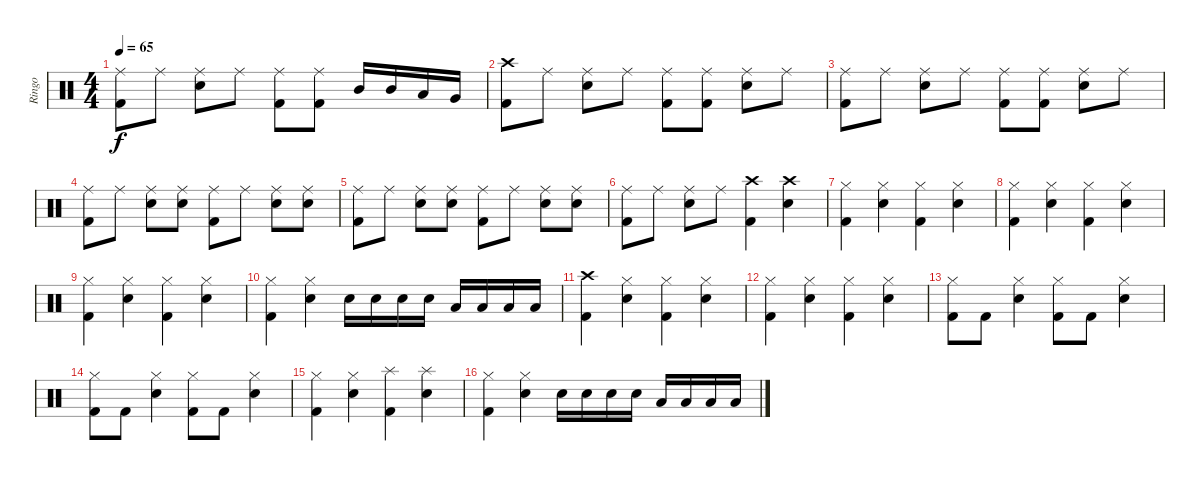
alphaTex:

\track ("Ringo" "Ringo") {instrument percussion}
\staff {score}
\articulation defaults
\ts (4 4)
\tempo 65
\clef neutral
\ks c
("Ride (middle)" "Kick (hit) 2").8{dy f} "Ride (middle)".8 ("Ride (middle)" "Snare (hit) 2").8 "Ride (middle)".8 ("Ride (middle)" "Kick (hit) 2").8 ("Ride (middle)" "Kick (hit) 2").8 "Mid Tom (hit)".16 "Mid Tom (hit)".16 "Low Tom (hit)".16 "Very Low Tom (hit)".16 |
("Crash high (hit)" "Kick (hit) 2").8 "Ride (middle)".8 ("Ride (middle)" "Snare (hit) 2").8 "Ride (middle)".8 ("Ride (middle)" "Kick (hit) 2").8 ("Ride (middle)" "Kick (hit) 2").8 ("Ride (middle)" "Snare (hit) 2").8 "Ride (middle)".8 |
("Ride (middle)" "Kick (hit) 2").8 "Ride (middle)".8 ("Ride (middle)" "Snare (hit) 2").8 "Ride (middle)".8 ("Ride (middle)" "Kick (hit) 2").8 ("Ride (middle)" "Kick (hit) 2").8 ("Ride (middle)" "Snare (hit) 2").8 "Ride (middle)".8 |
("Ride (middle)" "Kick (hit) 2").8 "Ride (middle)".8 ("Ride (middle)" "Snare (hit) 2").8 ("Ride (middle)" "Snare (hit) 2").8 ("Ride (middle)" "Kick (hit) 2").8 "Ride (middle)".8 ("Ride (middle)" "Snare (hit) 2").8 ("Ride (middle)" "Snare (hit) 2").8 |
("Ride (middle)" "Kick (hit) 2").8 "Ride (middle)".8 ("Ride (middle)" "Snare (hit) 2").8 ("Ride (middle)" "Snare (hit) 2").8 ("Ride (middle)" "Kick (hit) 2").8 "Ride (middle)".8 ("Ride (middle)" "Snare (hit) 2").8 ("Ride (middle)" "Snare (hit) 2").8 |
("Ride (middle)" "Kick (hit) 2").8 "Ride (middle)".8 ("Ride (middle)" "Snare (hit) 2").8 "Ride (middle)".8 ("Crash high (hit)" "Kick (hit) 2").4 ("Crash high (hit)" "Snare (hit) 2").4 |
("Hi-Hat (closed)" "Kick (hit) 2").4 ("Hi-Hat (closed)" "Snare (hit) 2").4 ("Hi-Hat (closed)" "Kick (hit) 2").4 ("Hi-Hat (closed)" "Snare (hit) 2").4 |
("Hi-Hat (closed)" "Kick (hit) 2").4 ("Hi-Hat (closed)" "Snare (hit) 2").4 ("Hi-Hat (closed)" "Kick (hit) 2").4 ("Hi-Hat (closed)" "Snare (hit) 2").4 |
("Hi-Hat (closed)" "Kick (hit) 2").4 ("Hi-Hat (closed)" "Snare (hit) 2").4 ("Hi-Hat (closed)" "Kick (hit) 2").4 ("Hi-Hat (closed)" "Snare (hit) 2").4 |
("Hi-Hat (closed)" "Kick (hit) 2").4 ("Hi-Hat (closed)" "Snare (hit) 2").4 "Snare (hit) 2".16 "Snare (hit) 2".16 "Snare (hit) 2".16 "Snare (hit) 2".16 "Low Tom (hit)".16 "Low Tom (hit)".16 "Low Tom (hit)".16 "Low Tom (hit)".16 |
("Crash high (hit)" "Kick (hit) 2").4 ("Hi-Hat (closed)" "Snare (hit) 2").4 ("Hi-Hat (closed)" "Kick (hit) 2").4 ("Hi-Hat (closed)" "Snare (hit) 2").4 |
("Hi-Hat (closed)" "Kick (hit) 2").4 ("Hi-Hat (closed)" "Snare (hit) 2").4 ("Hi-Hat (closed)" "Kick (hit) 2").4 ("Hi-Hat (closed)" "Snare (hit) 2").4 |
("Hi-Hat (closed)" "Kick (hit) 2").8 "Kick (hit) 2".8 ("Hi-Hat (closed)" "Snare (hit) 2").4 ("Hi-Hat (closed)" "Kick (hit) 2").8 "Kick (hit) 2".8 ("Hi-Hat (closed)" "Snare (hit) 2").4 |
("Hi-Hat (closed)" "Kick (hit) 2").8 "Kick (hit) 2".8 ("Hi-Hat (closed)" "Snare (hit) 2").4 ("Hi-Hat (closed)" "Kick (hit) 2").8 "Kick (hit) 2".8 ("Hi-Hat (closed)" "Snare (hit) 2").4 |
("Hi-Hat (closed)" "Kick (hit) 2").4 ("Hi-Hat (closed)" "Snare (hit) 2").4 ("Splash (hit)" "Kick (hit) 2").4 ("Splash (hit)" "Snare (hit) 2").4 |
("Hi-Hat (closed)" "Kick (hit) 2").4 ("Hi-Hat (closed)" "Snare (hit) 2").4 "Snare (hit) 2".16 "Snare (hit) 2".16 "Snare (hit) 2".16 "Snare (hit) 2".16 "Low Tom (hit)".16 "Low Tom (hit)".16 "Low Tom (hit)".16 "Low Tom (hit)".16
